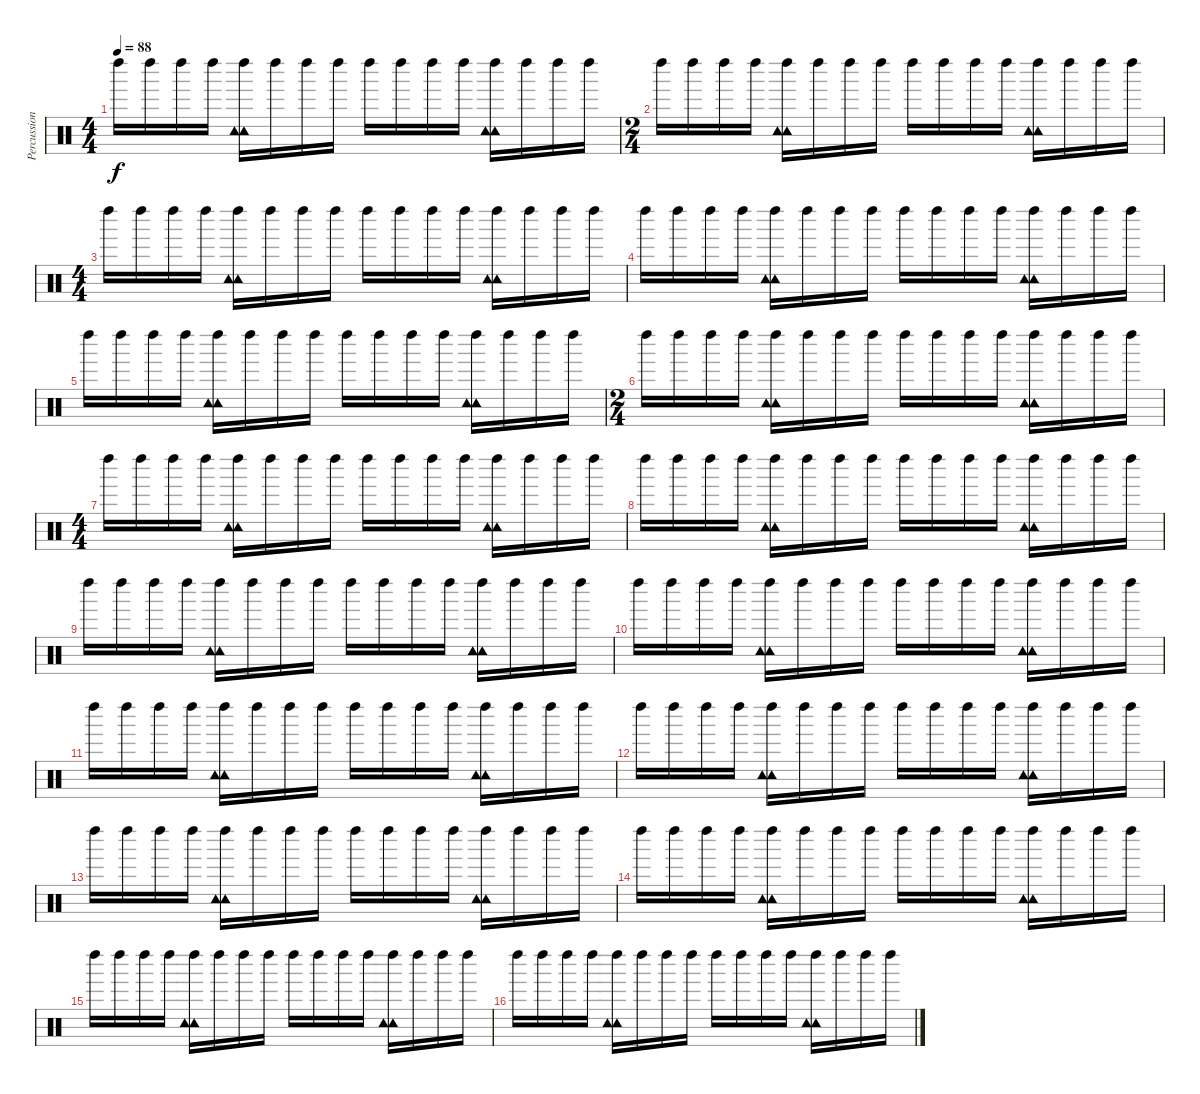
\track ("Percussioni" "Percussion") {instrument percussion}
\staff {score}
\articulation defaults
\ts (4 4)
\tempo 88
\clef neutral
\ks c "Left Maraca (hit)".16{dy f} "Left Maraca (hit)".16 "Left Maraca (hit)".16 "Left Maraca (hit)".16
("Left Maraca (hit)" "Tambourine (hit)" "Tambourine (hit)").16 "Left Maraca (hit)".16 "Left Maraca (hit)".16 "Left Maraca (hit)".16 "Left Maraca (hit)".16 "Left Maraca (hit)".16 "Left Maraca (hit)".16 "Left Maraca (hit)".16 ("Left Maraca (hit)" "Tambourine (hit)" "Tambourine (hit)").16 "Left Maraca (hit)".16 "Left Maraca (hit)".16 "Left Maraca (hit)".16 |
\ts (2 4)
"Left Maraca (hit)".16 "Left Maraca (hit)".16 "Left Maraca (hit)".16 "Left Maraca (hit)".16 ("Left Maraca (hit)" "Tambourine (hit)" "Tambourine (hit)").16 "Left Maraca (hit)".16 "Left Maraca (hit)".16 "Left Maraca (hit)".16 "Left Maraca (hit)".16 "Left Maraca (hit)".16 "Left Maraca (hit)".16 "Left Maraca (hit)".16 ("Left Maraca (hit)" "Tambourine (hit)" "Tambourine (hit)").16 "Left Maraca (hit)".16 "Left Maraca (hit)".16 "Left Maraca (hit)".16 |
\ts (4 4)
"Left Maraca (hit)".16 "Left Maraca (hit)".16 "Left Maraca (hit)".16 "Left Maraca (hit)".16 ("Left Maraca (hit)" "Tambourine (hit)" "Tambourine (hit)").16 "Left Maraca (hit)".16 "Left Maraca (hit)".16 "Left Maraca (hit)".16 "Left Maraca (hit)".16 "Left Maraca (hit)".16 "Left Maraca (hit)".16 "Left Maraca (hit)".16 ("Left Maraca (hit)" "Tambourine (hit)" "Tambourine (hit)").16 "Left Maraca (hit)".16 "Left Maraca (hit)".16 "Left Maraca (hit)".16 |
"Left Maraca (hit)".16 "Left Maraca (hit)".16 "Left Maraca (hit)".16 "Left Maraca (hit)".16 ("Left Maraca (hit)" "Tambourine (hit)" "Tambourine (hit)").16 "Left Maraca (hit)".16 "Left Maraca (hit)".16 "Left Maraca (hit)".16 "Left Maraca (hit)".16 "Left Maraca (hit)".16 "Left Maraca (hit)".16 "Left Maraca (hit)".16 ("Left Maraca (hit)" "Tambourine (hit)" "Tambourine (hit)").16 "Left Maraca (hit)".16 "Left Maraca (hit)".16 "Left Maraca (hit)".16 |
"Left Maraca (hit)".16 "Left Maraca (hit)".16 "Left Maraca (hit)".16 "Left Maraca (hit)".16 ("Left Maraca (hit)" "Tambourine (hit)" "Tambourine (hit)").16 "Left Maraca (hit)".16 "Left Maraca (hit)".16 "Left Maraca (hit)".16 "Left Maraca (hit)".16 "Left Maraca (hit)".16 "Left Maraca (hit)".16 "Left Maraca (hit)".16 ("Left Maraca (hit)" "Tambourine (hit)" "Tambourine (hit)").16 "Left Maraca (hit)".16 "Left Maraca (hit)".16 "Left Maraca (hit)".16 |
\ts (2 4)
"Left Maraca (hit)".16 "Left Maraca (hit)".16 "Left Maraca (hit)".16 "Left Maraca (hit)".16 ("Left Maraca (hit)" "Tambourine (hit)" "Tambourine (hit)").16 "Left Maraca (hit)".16 "Left Maraca (hit)".16 "Left Maraca (hit)".16 "Left Maraca (hit)".16 "Left Maraca (hit)".16 "Left Maraca (hit)".16 "Left Maraca (hit)".16 ("Left Maraca (hit)" "Tambourine (hit)" "Tambourine (hit)").16 "Left Maraca (hit)".16 "Left Maraca (hit)".16 "Left Maraca (hit)".16 |
\ts (4 4)
"Left Maraca (hit)".16 "Left Maraca (hit)".16 "Left Maraca (hit)".16 "Left Maraca (hit)".16 ("Left Maraca (hit)" "Tambourine (hit)" "Tambourine (hit)").16 "Left Maraca (hit)".16 "Left Maraca (hit)".16 "Left Maraca (hit)".16 "Left Maraca (hit)".16 "Left Maraca (hit)".16 "Left Maraca (hit)".16 "Left Maraca (hit)".16 ("Left Maraca (hit)" "Tambourine (hit)" "Tambourine (hit)").16 "Left Maraca (hit)".16 "Left Maraca (hit)".16 "Left Maraca (hit)".16 |
"Left Maraca (hit)".16 "Left Maraca (hit)".16 "Left Maraca (hit)".16 "Left Maraca (hit)".16 ("Left Maraca (hit)" "Tambourine (hit)" "Tambourine (hit)").16 "Left Maraca (hit)".16 "Left Maraca (hit)".16 "Left Maraca (hit)".16 "Left Maraca (hit)".16 "Left Maraca (hit)".16 "Left Maraca (hit)".16 "Left Maraca (hit)".16 ("Left Maraca (hit)" "Tambourine (hit)" "Tambourine (hit)").16 "Left Maraca (hit)".16 "Left Maraca (hit)".16 "Left Maraca (hit)".16 |
"Left Maraca (hit)".16 "Left Maraca (hit)".16 "Left Maraca (hit)".16 "Left Maraca (hit)".16 ("Left Maraca (hit)" "Tambourine (hit)" "Tambourine (hit)").16 "Left Maraca (hit)".16 "Left Maraca (hit)".16 "Left Maraca (hit)".16 "Left Maraca (hit)".16 "Left Maraca (hit)".16 "Left Maraca (hit)".16 "Left Maraca (hit)".16 ("Left Maraca (hit)" "Tambourine (hit)" "Tambourine (hit)").16 "Left Maraca (hit)".16 "Left Maraca (hit)".16 "Left Maraca (hit)".16 |
"Left Maraca (hit)".16 "Left Maraca (hit)".16 "Left Maraca (hit)".16 "Left Maraca (hit)".16 ("Left Maraca (hit)" "Tambourine (hit)" "Tambourine (hit)").16 "Left Maraca (hit)".16 "Left Maraca (hit)".16 "Left Maraca (hit)".16 "Left Maraca (hit)".16 "Left Maraca (hit)".16 "Left Maraca (hit)".16 "Left Maraca (hit)".16 ("Left Maraca (hit)" "Tambourine (hit)" "Tambourine (hit)").16 "Left Maraca (hit)".16 "Left Maraca (hit)".16 "Left Maraca (hit)".16 |
"Left Maraca (hit)".16 "Left Maraca (hit)".16 "Left Maraca (hit)".16 "Left Maraca (hit)".16 ("Left Maraca (hit)" "Tambourine (hit)" "Tambourine (hit)").16 "Left Maraca (hit)".16 "Left Maraca (hit)".16 "Left Maraca (hit)".16 "Left Maraca (hit)".16 "Left Maraca (hit)".16 "Left Maraca (hit)".16 "Left Maraca (hit)".16 ("Left Maraca (hit)" "Tambourine (hit)" "Tambourine (hit)").16 "Left Maraca (hit)".16 "Left Maraca (hit)".16 "Left Maraca (hit)".16 |
"Left Maraca (hit)".16 "Left Maraca (hit)".16 "Left Maraca (hit)".16 "Left Maraca (hit)".16 ("Left Maraca (hit)" "Tambourine (hit)" "Tambourine (hit)").16 "Left Maraca (hit)".16 "Left Maraca (hit)".16 "Left Maraca (hit)".16 "Left Maraca (hit)".16 "Left Maraca (hit)".16 "Left Maraca (hit)".16 "Left Maraca (hit)".16 ("Left Maraca (hit)" "Tambourine (hit)" "Tambourine (hit)").16 "Left Maraca (hit)".16 "Left Maraca (hit)".16 "Left Maraca (hit)".16 |
"Left Maraca (hit)".16 "Left Maraca (hit)".16 "Left Maraca (hit)".16 "Left Maraca (hit)".16 ("Left Maraca (hit)" "Tambourine (hit)" "Tambourine (hit)").16 "Left Maraca (hit)".16 "Left Maraca (hit)".16 "Left Maraca (hit)".16 "Left Maraca (hit)".16 "Left Maraca (hit)".16 "Left Maraca (hit)".16 "Left Maraca (hit)".16 ("Left Maraca (hit)" "Tambourine (hit)" "Tambourine (hit)").16 "Left Maraca (hit)".16 "Left Maraca (hit)".16 "Left Maraca (hit)".16 |
"Left Maraca (hit)".16 "Left Maraca (hit)".16 "Left Maraca (hit)".16 "Left Maraca (hit)".16 ("Left Maraca (hit)" "Tambourine (hit)" "Tambourine (hit)").16 "Left Maraca (hit)".16 "Left Maraca (hit)".16 "Left Maraca (hit)".16 "Left Maraca (hit)".16 "Left Maraca (hit)".16 "Left Maraca (hit)".16 "Left Maraca (hit)".16 ("Left Maraca (hit)" "Tambourine (hit)" "Tambourine (hit)").16 "Left Maraca (hit)".16 "Left Maraca (hit)".16 "Left Maraca (hit)".16 |
"Left Maraca (hit)".16 "Left Maraca (hit)".16 "Left Maraca (hit)".16 "Left Maraca (hit)".16 ("Left Maraca (hit)" "Tambourine (hit)" "Tambourine (hit)").16 "Left Maraca (hit)".16 "Left Maraca (hit)".16 "Left Maraca (hit)".16 "Left Maraca (hit)".16 "Left Maraca (hit)".16 "Left Maraca (hit)".16 "Left Maraca (hit)".16 ("Left Maraca (hit)" "Tambourine (hit)" "Tambourine (hit)").16 "Left Maraca (hit)".16 "Left Maraca (hit)".16 "Left Maraca (hit)".16 |
"Left Maraca (hit)".16 "Left Maraca (hit)".16 "Left Maraca (hit)".16 "Left Maraca (hit)".16 ("Left Maraca (hit)" "Tambourine (hit)" "Tambourine (hit)").16 "Left Maraca (hit)".16 "Left Maraca (hit)".16 "Left Maraca (hit)".16 "Left Maraca (hit)".16 "Left Maraca (hit)".16 "Left Maraca (hit)".16 "Left Maraca (hit)".16 ("Left Maraca (hit)" "Tambourine (hit)" "Tambourine (hit)").16 "Left Maraca (hit)".16 "Left Maraca (hit)".16 "Left Maraca (hit)".16
